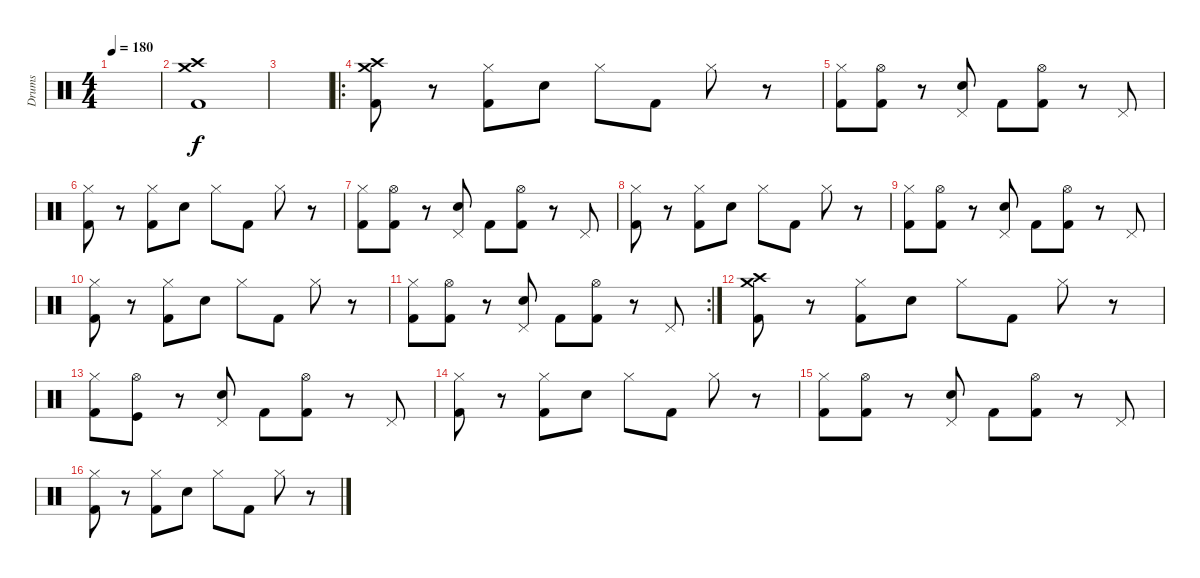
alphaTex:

\track ("Drums" "Drums") {instrument percussion}
\staff {score}
\articulation defaults
\ts (4 4)
\tempo 180
\clef neutral
\ks c
|
("Crash high (hit)" "Crash medium (hit)" "Kick (hit) 2").1 |
|
\ro
("Crash high (hit)" "Crash medium (hit)" "Kick (hit) 2").8 r.8 ("Hi-Hat (closed)" "Kick (hit) 2").8 "Electric Snare (hit)".8 "Hi-Hat (closed)".8 "Kick (hit) 2".8 "Hi-Hat (closed)".8 r.8 |
("Hi-Hat (closed)" "Kick (hit) 2").8 ("Hi-Hat (open)" "Kick (hit) 2").8 r.8 ("Pedal Hi-Hat (hit)" "Electric Snare (hit)").8 "Kick (hit) 2".8 ("Hi-Hat (open)" "Kick (hit) 2").8 r.8 "Pedal Hi-Hat (hit)".8 |
("Hi-Hat (closed)" "Kick (hit) 2").8 r.8 ("Hi-Hat (closed)" "Kick (hit) 2").8 "Electric Snare (hit)".8 "Hi-Hat (closed)".8 "Kick (hit) 2".8 "Hi-Hat (closed)".8 r.8 |
("Hi-Hat (closed)" "Kick (hit) 2").8 ("Hi-Hat (open)" "Kick (hit) 2").8 r.8 ("Pedal Hi-Hat (hit)" "Electric Snare (hit)").8 "Kick (hit) 2".8 ("Hi-Hat (open)" "Kick (hit) 2").8 r.8 "Pedal Hi-Hat (hit)".8 |
("Hi-Hat (closed)" "Kick (hit) 2").8 r.8 ("Hi-Hat (closed)" "Kick (hit) 2").8 "Electric Snare (hit)".8 "Hi-Hat (closed)".8 "Kick (hit) 2".8 "Hi-Hat (closed)".8 r.8 |
("Hi-Hat (closed)" "Kick (hit) 2").8 ("Hi-Hat (open)" "Kick (hit) 2").8 r.8 ("Pedal Hi-Hat (hit)" "Electric Snare (hit)").8 "Kick (hit) 2".8 ("Hi-Hat (open)" "Kick (hit) 2").8 r.8 "Pedal Hi-Hat (hit)".8 |
("Hi-Hat (closed)" "Kick (hit) 2").8 r.8 ("Hi-Hat (closed)" "Kick (hit) 2").8 "Electric Snare (hit)".8 "Hi-Hat (closed)".8 "Kick (hit) 2".8 "Hi-Hat (closed)".8 r.8 |
\rc 2
("Hi-Hat (closed)" "Kick (hit) 2").8 ("Hi-Hat (open)" "Kick (hit) 2").8 r.8 ("Pedal Hi-Hat (hit)" "Electric Snare (hit)").8 "Kick (hit) 2".8 ("Hi-Hat (open)" "Kick (hit) 2").8 r.8 "Pedal Hi-Hat (hit)".8 |
("Crash high (hit)" "Crash medium (hit)" "Kick (hit) 2").8 r.8 ("Hi-Hat (closed)" "Kick (hit) 2").8 "Electric Snare (hit)".8 "Hi-Hat (closed)".8 "Kick (hit) 2".8 "Hi-Hat (closed)".8 r.8 |
("Hi-Hat (closed)" "Kick (hit) 2").8 ("Hi-Hat (open)" "Kick (hit)").8 r.8 ("Pedal Hi-Hat (hit)" "Electric Snare (hit)").8 "Kick (hit) 2".8 ("Hi-Hat (open)" "Kick (hit) 2").8 r.8 "Pedal Hi-Hat (hit)".8 |
("Hi-Hat (closed)" "Kick (hit) 2").8 r.8 ("Hi-Hat (closed)" "Kick (hit) 2").8 "Electric Snare (hit)".8 "Hi-Hat (closed)".8 "Kick (hit) 2".8 "Hi-Hat (closed)".8 r.8 |
("Hi-Hat (closed)" "Kick (hit) 2").8 ("Hi-Hat (open)" "Kick (hit) 2").8 r.8 ("Pedal Hi-Hat (hit)" "Electric Snare (hit)").8 "Kick (hit) 2".8 ("Hi-Hat (open)" "Kick (hit) 2").8 r.8 "Pedal Hi-Hat (hit)".8 |
("Hi-Hat (closed)" "Kick (hit) 2").8 r.8 ("Hi-Hat (closed)" "Kick (hit) 2").8 "Electric Snare (hit)".8 "Hi-Hat (closed)".8 "Kick (hit) 2".8 "Hi-Hat (closed)".8 r.8
